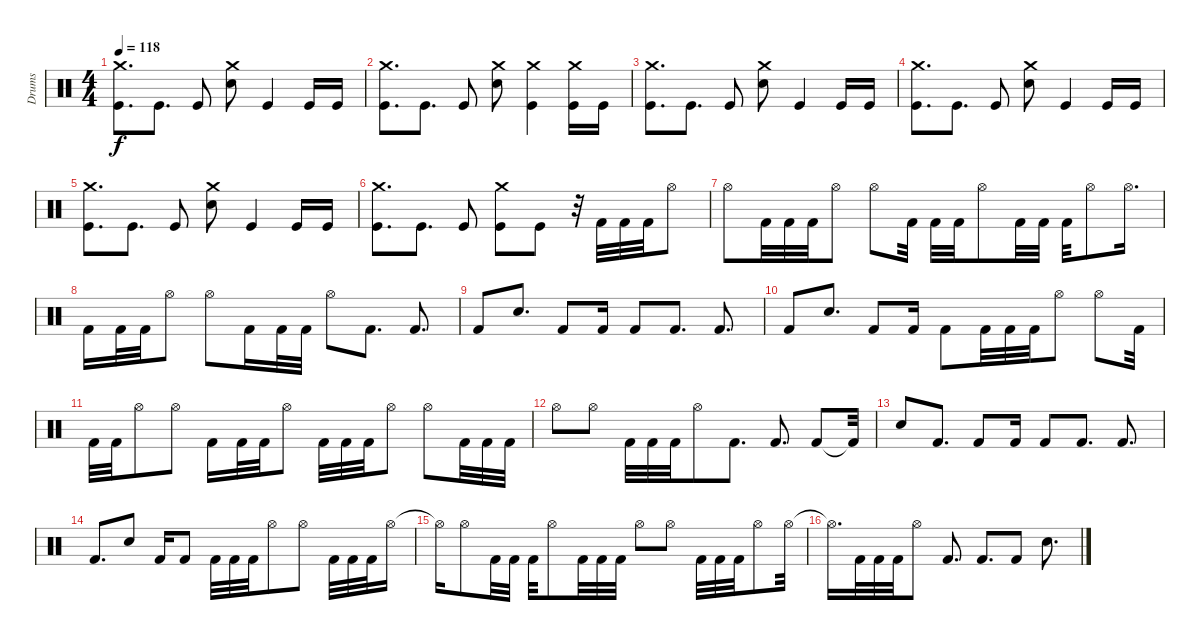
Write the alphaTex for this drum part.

\track ("Drums" "Drums") {instrument percussion}
\staff {score}
\articulation defaults
\ts (4 4)
\tempo 118
\clef neutral
\ks c
("Crash medium (hit)" "Kick (hit)").8{d dy f} "Kick (hit)".8{d} "Kick (hit)".8 ("Crash medium (hit)" "Snare (hit) 2").8 "Kick (hit)".4 "Kick (hit)".16 "Kick (hit)".16 |
("Crash medium (hit)" "Kick (hit)").8{d} "Kick (hit)".8{d} "Kick (hit)".8 ("Crash medium (hit)" "Snare (hit) 2").8 ("Crash medium (hit)" "Kick (hit)").4 ("Crash medium (hit)" "Kick (hit)").16 "Kick (hit)".16 |
("Crash medium (hit)" "Kick (hit)").8{d} "Kick (hit)".8{d} "Kick (hit)".8 ("Crash medium (hit)" "Snare (hit) 2").8 "Kick (hit)".4 "Kick (hit)".16 "Kick (hit)".16 |
("Crash medium (hit)" "Kick (hit)").8{d} "Kick (hit)".8{d} "Kick (hit)".8 ("Crash medium (hit)" "Snare (hit) 2").8 "Kick (hit)".4 "Kick (hit)".16 "Kick (hit)".16 |
("Crash medium (hit)" "Kick (hit)").8{d} "Kick (hit)".8{d} "Kick (hit)".8 ("Crash medium (hit)" "Snare (hit) 2").8 "Kick (hit)".4 "Kick (hit)".16 "Kick (hit)".16 |
("Crash medium (hit)" "Kick (hit)").8{d} "Kick (hit)".8{d} "Kick (hit)".8 ("Crash medium (hit)" "Kick (hit)").8 "Kick (hit)".8 r.32 "Kick (hit) 2".32 "Kick (hit) 2".32 "Kick (hit) 2".32 "Hi-Hat (open)".8 |
"Hi-Hat (open)".8 "Kick (hit) 2".32 "Kick (hit) 2".32 "Kick (hit) 2".32 "Hi-Hat (open)".8 "Hi-Hat (open)".8 "Kick (hit) 2".32 "Kick (hit) 2".32 "Kick (hit) 2".32 "Hi-Hat (open)".8 "Kick (hit) 2".32 "Kick (hit) 2".32 "Kick (hit) 2".32 "Hi-Hat (open)".8 "Hi-Hat (open)".16{d} |
"Kick (hit) 2".16 "Kick (hit) 2".32 "Kick (hit) 2".32 "Hi-Hat (open)".8 "Hi-Hat (open)".8 "Kick (hit) 2".16 "Kick (hit) 2".32 "Kick (hit) 2".32 "Hi-Hat (open)".8 "Kick (hit) 2".8{d} "Kick (hit) 2".8{d} |
"Kick (hit) 2".8 "Snare (hit) 2".8{d} "Kick (hit) 2".8 "Kick (hit) 2".16 "Kick (hit) 2".8 "Kick (hit) 2".8{d} "Kick (hit) 2".8{d} |
"Kick (hit) 2".8 "Snare (hit) 2".8{d} "Kick (hit) 2".8 "Kick (hit) 2".16 "Kick (hit) 2".8 "Kick (hit) 2".32 "Kick (hit) 2".32 "Kick (hit) 2".32 "Hi-Hat (open)".8 "Hi-Hat (open)".8 "Kick (hit) 2".32 |
"Kick (hit) 2".32 "Kick (hit) 2".32 "Hi-Hat (open)".8 "Hi-Hat (open)".8 "Kick (hit) 2".16 "Kick (hit) 2".32 "Kick (hit) 2".32 "Hi-Hat (open)".8 "Kick (hit) 2".32 "Kick (hit) 2".32 "Kick (hit) 2".32 "Hi-Hat (open)".8 "Hi-Hat (open)".8 "Kick (hit) 2".32 "Kick (hit) 2".32 "Kick (hit) 2".32 |
"Hi-Hat (open)".8 "Hi-Hat (open)".8 "Kick (hit) 2".32 "Kick (hit) 2".32 "Kick (hit) 2".32 "Hi-Hat (open)".8 "Kick (hit) 2".8{d} "Kick (hit) 2".8{d} "Kick (hit) 2".8 "Kick (hit) 2"{t}.32 |
"Snare (hit) 2".8 "Kick (hit) 2".8{d} "Kick (hit) 2".8 "Kick (hit) 2".16 "Kick (hit) 2".8 "Kick (hit) 2".8{d} "Kick (hit) 2".8{d} |
"Kick (hit) 2".8{d} "Snare (hit) 2".8 "Kick (hit) 2".16 "Kick (hit) 2".8 "Kick (hit) 2".32 "Kick (hit) 2".32 "Kick (hit) 2".32 "Hi-Hat (open)".8 "Hi-Hat (open)".8 "Kick (hit) 2".32 "Kick (hit) 2".32 "Kick (hit) 2".32 "Hi-Hat (open)".16 |
"Hi-Hat (open)"{t}.16 "Hi-Hat (open)".8 "Kick (hit) 2".32 "Kick (hit) 2".32 "Kick (hit) 2".32 "Hi-Hat (open)".8 "Kick (hit) 2".32 "Kick (hit) 2".32 "Kick (hit) 2".32 "Hi-Hat (open)".8 "Hi-Hat (open)".8 "Kick (hit) 2".32 "Kick (hit) 2".32 "Kick (hit) 2".32 "Hi-Hat (open)".8 "Hi-Hat (open)".32 |
"Hi-Hat (open)"{t}.16{d} "Kick (hit) 2".32 "Kick (hit) 2".32 "Kick (hit) 2".32 "Hi-Hat (open)".8 "Kick (hit) 2".8{d} "Kick (hit) 2".8{d} "Kick (hit) 2".8 "Snare (hit) 2".8{d}
